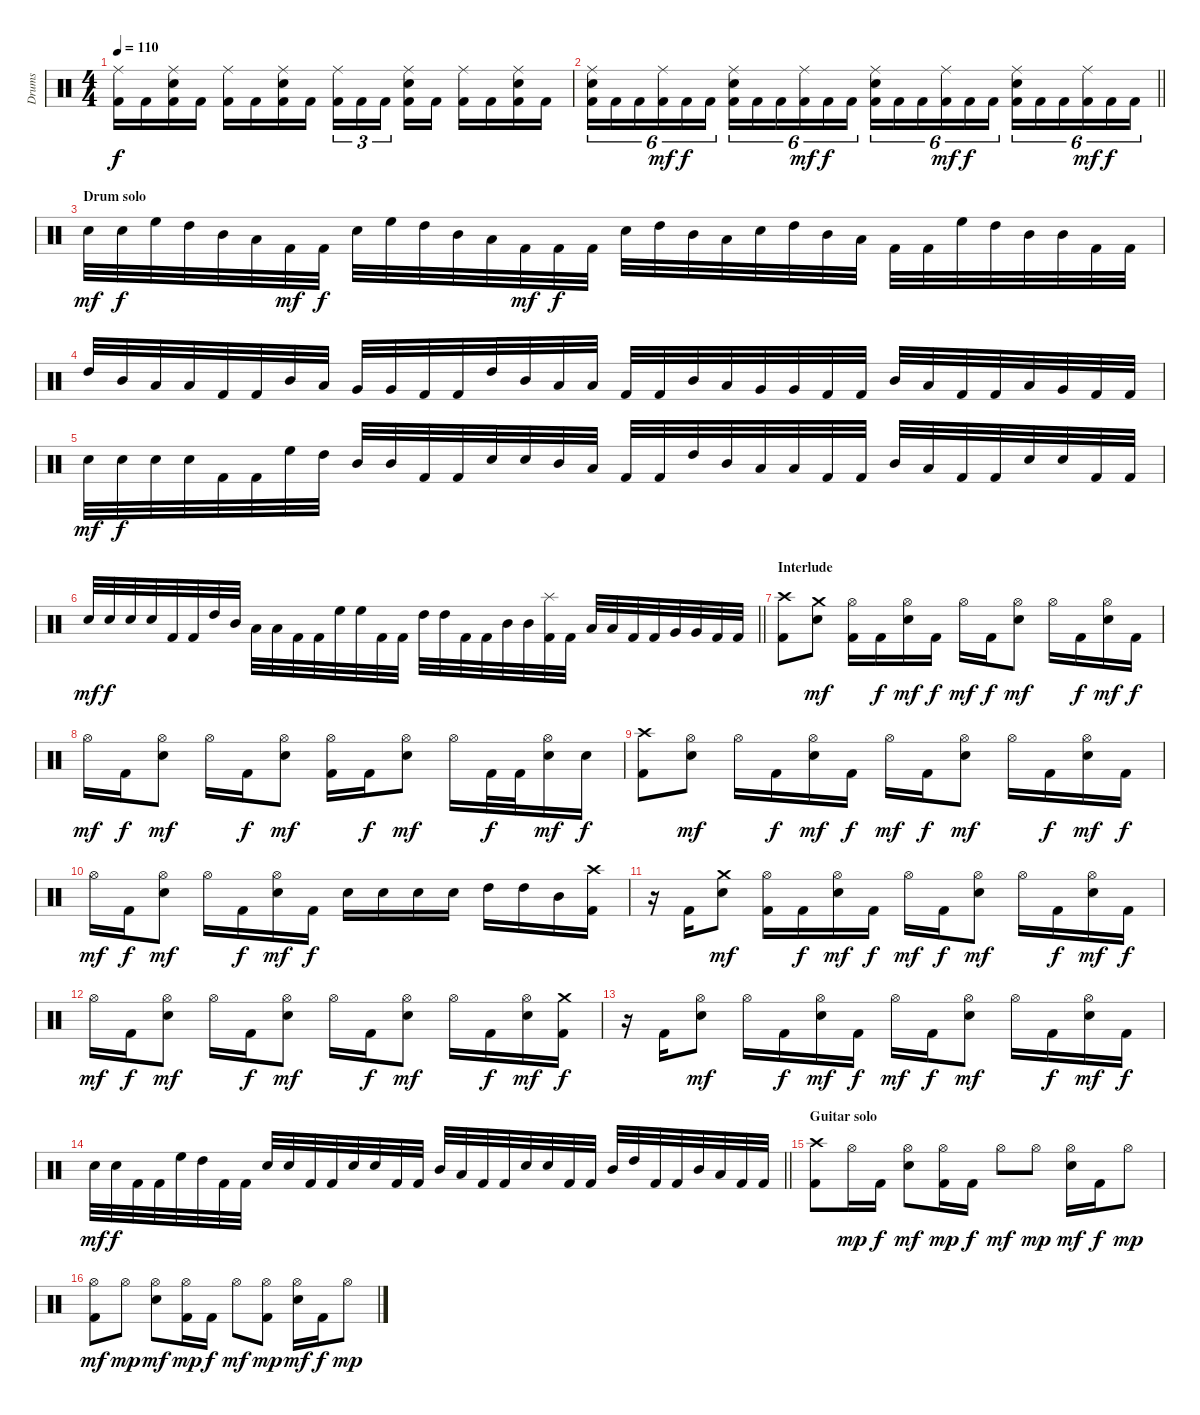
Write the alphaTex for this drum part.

\track ("Drums" "Drums") {instrument percussion}
\staff {score}
\articulation defaults
\ts (4 4)
\tempo 110
\clef neutral
\ks c
("Ride (middle)" "Kick (hit) 2").16{dy f} "Kick (hit) 2".16 ("Ride (middle)" "Electric Snare (hit)" "Kick (hit) 2").16 "Kick (hit) 2".16 ("Ride (middle)" "Kick (hit) 2").16 "Kick (hit) 2".16 ("Ride (middle)" "Electric Snare (hit)" "Kick (hit) 2").16 "Kick (hit) 2".16 ("Ride (middle)" "Kick (hit) 2").16{tu (3 2)} "Kick (hit) 2".16{tu (3 2)} "Kick (hit) 2".16{tu (3 2)} ("Ride (middle)" "Electric Snare (hit)" "Kick (hit) 2").16 "Kick (hit) 2".16 ("Ride (middle)" "Kick (hit) 2").16 "Kick (hit) 2".16 ("Ride (middle)" "Electric Snare (hit)" "Kick (hit) 2").16 "Kick (hit) 2".16 |
\barLineRight lightlight
("Ride (middle)" "Electric Snare (hit)" "Kick (hit) 2").16{tu (6 4)} "Kick (hit) 2".16{tu (6 4)} "Kick (hit) 2".16{tu (6 4)} ("Ride (middle)" "Kick (hit) 2").16{tu (6 4) dy mf} "Kick (hit) 2".16{tu (6 4) dy f} "Kick (hit) 2".16{tu (6 4)} ("Ride (middle)" "Electric Snare (hit)" "Kick (hit) 2").16{tu (6 4)} "Kick (hit) 2".16{tu (6 4)} "Kick (hit) 2".16{tu (6 4)} ("Ride (middle)" "Kick (hit) 2").16{tu (6 4) dy mf} "Kick (hit) 2".16{tu (6 4) dy f} "Kick (hit) 2".16{tu (6 4)} ("Ride (middle)" "Electric Snare (hit)" "Kick (hit) 2").16{tu (6 4)} "Kick (hit) 2".16{tu (6 4)} "Kick (hit) 2".16{tu (6 4)} ("Ride (middle)" "Kick (hit) 2").16{tu (6 4) dy mf} "Kick (hit) 2".16{tu (6 4) dy f} "Kick (hit) 2".16{tu (6 4)} ("Ride (middle)" "Electric Snare (hit)" "Kick (hit) 2").16{tu (6 4)} "Kick (hit) 2".16{tu (6 4)} "Kick (hit) 2".16{tu (6 4)} ("Ride (middle)" "Kick (hit) 2").16{tu (6 4) dy mf} "Kick (hit) 2".16{tu (6 4) dy f} "Kick (hit) 2".16{tu (6 4)} |
\section ("" "Drum solo")
"Electric Snare (hit)".32{dy mf} "Electric Snare (hit)".32{dy f} "High Floor Tom (hit)".32 "High Tom (hit)".32 "Mid Tom (hit)".32 "Low Tom (hit)".32 "Kick (hit) 2".32{dy mf} "Kick (hit) 2".32{dy f} "Electric Snare (hit)".32 "High Floor Tom (hit)".32 "High Tom (hit)".32 "Mid Tom (hit)".32 "Low Tom (hit)".32 "Kick (hit) 2".32{dy mf} "Kick (hit) 2".32{dy f} "Kick (hit) 2".32 "Electric Snare (hit)".32 "High Tom (hit)".32 "Mid Tom (hit)".32 "Low Tom (hit)".32 "Electric Snare (hit)".32 "High Tom (hit)".32 "Mid Tom (hit)".32 "Low Tom (hit)".32 "Kick (hit) 2".32 "Kick (hit) 2".32 "High Floor Tom (hit)".32 "High Tom (hit)".32 "Mid Tom (hit)".32 "Mid Tom (hit)".32 "Kick (hit) 2".32 "Kick (hit) 2".32 |
"High Tom (hit)".32 "Mid Tom (hit)".32 "Low Tom (hit)".32 "Low Tom (hit)".32 "Kick (hit) 2".32 "Kick (hit) 2".32 "Mid Tom (hit)".32 "Low Tom (hit)".32 "Very Low Tom (hit)".32 "Very Low Tom (hit)".32 "Kick (hit) 2".32 "Kick (hit) 2".32 "High Tom (hit)".32 "Mid Tom (hit)".32 "Low Tom (hit)".32 "Low Tom (hit)".32 "Kick (hit) 2".32 "Kick (hit) 2".32 "Mid Tom (hit)".32 "Low Tom (hit)".32 "Very Low Tom (hit)".32 "Very Low Tom (hit)".32 "Kick (hit) 2".32 "Kick (hit) 2".32 "Mid Tom (hit)".32 "Low Tom (hit)".32 "Kick (hit) 2".32 "Kick (hit) 2".32 "Low Tom (hit)".32 "Very Low Tom (hit)".32 "Kick (hit) 2".32 "Kick (hit) 2".32 |
"Electric Snare (hit)".32{dy mf} "Electric Snare (hit)".32{dy f} "Electric Snare (hit)".32 "Electric Snare (hit)".32 "Kick (hit) 2".32 "Kick (hit) 2".32 "High Floor Tom (hit)".32 "High Tom (hit)".32 "Mid Tom (hit)".32 "Mid Tom (hit)".32 "Kick (hit) 2".32 "Kick (hit) 2".32 "Electric Snare (hit)".32 "Electric Snare (hit)".32 "Mid Tom (hit)".32 "Low Tom (hit)".32 "Kick (hit) 2".32 "Kick (hit) 2".32 "High Tom (hit)".32 "Mid Tom (hit)".32 "Low Tom (hit)".32 "Low Tom (hit)".32 "Kick (hit) 2".32 "Kick (hit) 2".32 "Mid Tom (hit)".32 "Low Tom (hit)".32 "Kick (hit) 2".32 "Kick (hit) 2".32 "Electric Snare (hit)".32 "Electric Snare (hit)".32 "Kick (hit) 2".32 "Kick (hit) 2".32 |
\barLineRight lightlight "Electric Snare (hit)".32{dy mf} "Electric Snare (hit)".32{dy f} "Electric Snare (hit)".32 "Electric Snare (hit)".32 "Kick (hit) 2".32 "Kick (hit) 2".32 "High Tom (hit)".32 "Mid Tom (hit)".32 "Low Tom (hit)".32 "Low Tom (hit)".32 "Kick (hit) 2".32 "Kick (hit) 2".32 "High Floor Tom (hit)".32 "High Floor Tom (hit)".32 "Kick (hit) 2".32 "Kick (hit) 2".32 "High Tom (hit)".32 "High Tom (hit)".32 "Kick (hit) 2".32 "Kick (hit) 2".32 "Mid Tom (hit)".32 "Mid Tom (hit)".32
("Splash (hit)" "Kick (hit) 2").32 "Kick (hit) 2".32 "Low Tom (hit)".32 "Low Tom (hit)".32 "Kick (hit) 2".32 "Kick (hit) 2".32 "Very Low Tom (hit)".32 "Very Low Tom (hit)".32 "Kick (hit) 2".32 "Kick (hit) 2".32 |
\section ("" "Interlude")
("Crash high (hit)" "Kick (hit) 2").8 ("Crash medium (hit)" "Electric Snare (hit)").8{dy mf} ("Hi-Hat (open)" "Kick (hit) 2").16 "Kick (hit) 2".16{dy f} ("Hi-Hat (open)" "Electric Snare (hit)").16{dy mf} "Kick (hit) 2".16{dy f} "Hi-Hat (open)".16{dy mf} "Kick (hit) 2".16{dy f} ("Hi-Hat (open)" "Electric Snare (hit)").8{dy mf} "Hi-Hat (open)".16 "Kick (hit) 2".16{dy f} ("Hi-Hat (open)" "Electric Snare (hit)").16{dy mf} "Kick (hit) 2".16{dy f} |
"Hi-Hat (open)".16{dy mf} "Kick (hit) 2".16{dy f} ("Hi-Hat (open)" "Electric Snare (hit)").8{dy mf} "Hi-Hat (open)".16 "Kick (hit) 2".16{dy f} ("Hi-Hat (open)" "Electric Snare (hit)").8{dy mf} ("Hi-Hat (open)" "Kick (hit) 2").16 "Kick (hit) 2".16{dy f} ("Hi-Hat (open)" "Electric Snare (hit)").8{dy mf} "Hi-Hat (open)".16 "Kick (hit) 2".32{dy f} "Kick (hit) 2".32 ("Hi-Hat (open)" "Electric Snare (hit)").16{dy mf} "Electric Snare (hit)".16{dy f} |
("Crash high (hit)" "Kick (hit) 2").8 ("Hi-Hat (open)" "Electric Snare (hit)").8{dy mf} "Hi-Hat (open)".16 "Kick (hit) 2".16{dy f} ("Hi-Hat (open)" "Electric Snare (hit)").16{dy mf} "Kick (hit) 2".16{dy f} "Hi-Hat (open)".16{dy mf} "Kick (hit) 2".16{dy f} ("Hi-Hat (open)" "Electric Snare (hit)").8{dy mf} "Hi-Hat (open)".16 "Kick (hit) 2".16{dy f} ("Hi-Hat (open)" "Electric Snare (hit)").16{dy mf} "Kick (hit) 2".16{dy f} |
"Hi-Hat (open)".16{dy mf} "Kick (hit) 2".16{dy f} ("Hi-Hat (open)" "Electric Snare (hit)").8{dy mf} "Hi-Hat (open)".16 "Kick (hit) 2".16{dy f} ("Hi-Hat (open)" "Electric Snare (hit)").16{dy mf} "Kick (hit) 2".16{dy f} "Electric Snare (hit)".16 "Electric Snare (hit)".16 "Electric Snare (hit)".16 "Electric Snare (hit)".16 "High Tom (hit)".16 "High Tom (hit)".16 "Mid Tom (hit)".16 ("Crash high (hit)" "Kick (hit) 2").16 |
r.16 "Kick (hit) 2".16 ("Crash medium (hit)" "Electric Snare (hit)").8{dy mf} ("Hi-Hat (open)" "Kick (hit) 2").16 "Kick (hit) 2".16{dy f} ("Hi-Hat (open)" "Electric Snare (hit)").16{dy mf} "Kick (hit) 2".16{dy f} "Hi-Hat (open)".16{dy mf} "Kick (hit) 2".16{dy f} ("Hi-Hat (open)" "Electric Snare (hit)").8{dy mf} "Hi-Hat (open)".16 "Kick (hit) 2".16{dy f} ("Hi-Hat (open)" "Electric Snare (hit)").16{dy mf} "Kick (hit) 2".16{dy f} |
"Hi-Hat (open)".16{dy mf} "Kick (hit) 2".16{dy f} ("Hi-Hat (open)" "Electric Snare (hit)").8{dy mf} "Hi-Hat (open)".16 "Kick (hit) 2".16{dy f} ("Hi-Hat (open)" "Electric Snare (hit)").8{dy mf} "Hi-Hat (open)".16 "Kick (hit) 2".16{dy f} ("Hi-Hat (open)" "Electric Snare (hit)").8{dy mf} "Hi-Hat (open)".16 "Kick (hit) 2".16{dy f} ("Hi-Hat (open)" "Electric Snare (hit)").16{dy mf} ("Crash medium (hit)" "Kick (hit) 2").16{dy f} |
r.16 "Kick (hit) 2".16 ("Hi-Hat (open)" "Electric Snare (hit)").8{dy mf} "Hi-Hat (open)".16 "Kick (hit) 2".16{dy f} ("Hi-Hat (open)" "Electric Snare (hit)").16{dy mf} "Kick (hit) 2".16{dy f} "Hi-Hat (open)".16{dy mf} "Kick (hit) 2".16{dy f} ("Hi-Hat (open)" "Electric Snare (hit)").8{dy mf} "Hi-Hat (open)".16 "Kick (hit) 2".16{dy f} ("Hi-Hat (open)" "Electric Snare (hit)").16{dy mf} "Kick (hit) 2".16{dy f} |
\barLineRight lightlight "Electric Snare (hit)".32{dy mf} "Electric Snare (hit)".32{dy f} "Kick (hit) 2".32 "Kick (hit) 2".32 "High Floor Tom (hit)".32 "High Tom (hit)".32 "Kick (hit) 2".32 "Kick (hit) 2".32 "Electric Snare (hit)".32 "Electric Snare (hit)".32 "Kick (hit) 2".32 "Kick (hit) 2".32 "Electric Snare (hit)".32 "Electric Snare (hit)".32 "Kick (hit) 2".32 "Kick (hit) 2".32 "Mid Tom (hit)".32 "Low Tom (hit)".32 "Kick (hit) 2".32 "Kick (hit) 2".32 "Electric Snare (hit)".32 "Electric Snare (hit)".32 "Kick (hit) 2".32 "Kick (hit) 2".32 "Mid Tom (hit)".32 "High Tom (hit)".32 "Kick (hit) 2".32 "Kick (hit) 2".32 "Mid Tom (hit)".32 "Low Tom (hit)".32 "Kick (hit) 2".32 "Kick (hit) 2".32
|
\section ("" "Guitar solo")
("Crash high (hit)" "Kick (hit) 2").8 "Hi-Hat (open)".16{dy mp} "Kick (hit) 2".16{dy f} ("Hi-Hat (open)" "Electric Snare (hit)").8{dy mf} ("Hi-Hat (open)" "Kick (hit) 2").16{dy mp} "Kick (hit) 2".16{dy f} "Hi-Hat (open)".8{dy mf} "Hi-Hat (open)".8{dy mp} ("Hi-Hat (open)" "Electric Snare (hit)").16{dy mf} "Kick (hit) 2".16{dy f} "Hi-Hat (open)".8{dy mp} |
("Hi-Hat (open)" "Kick (hit) 2").8{dy mf} "Hi-Hat (open)".8{dy mp} ("Hi-Hat (open)" "Electric Snare (hit)").8{dy mf} ("Hi-Hat (open)" "Kick (hit) 2").16{dy mp} "Kick (hit) 2".16{dy f} "Hi-Hat (open)".8{dy mf} ("Hi-Hat (open)" "Kick (hit) 2").8{dy mp} ("Hi-Hat (open)" "Electric Snare (hit)").16{dy mf} "Kick (hit) 2".16{dy f} "Hi-Hat (open)".8{dy mp}
